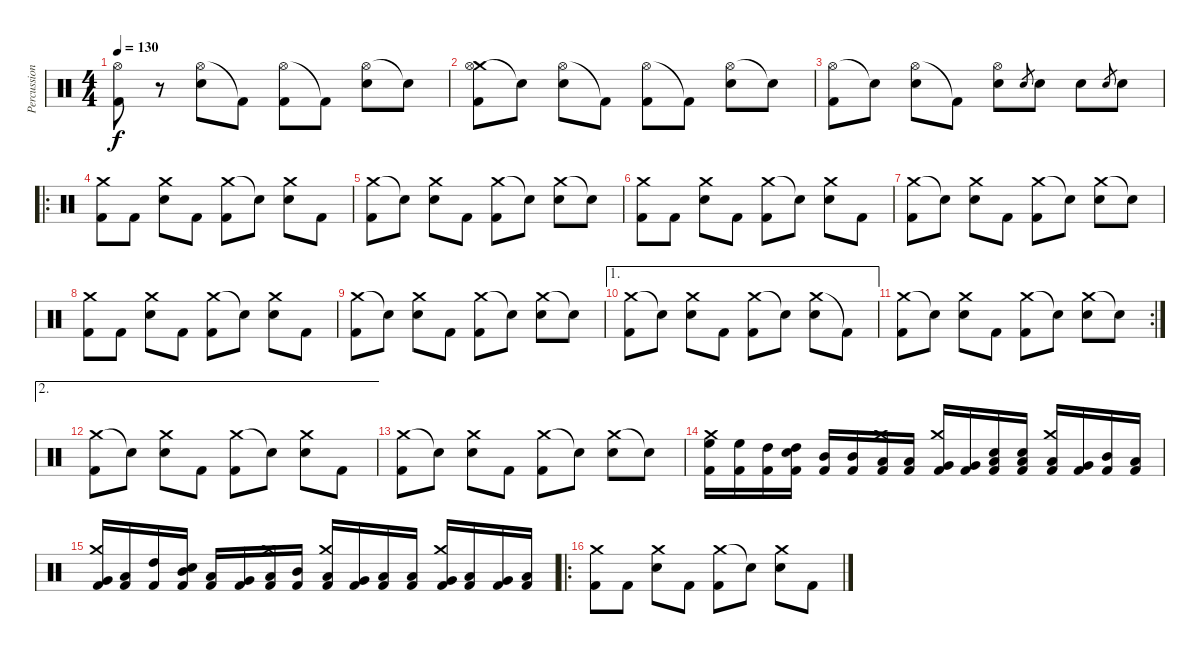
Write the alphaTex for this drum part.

\track ("Percussion" "Percussion") {instrument percussion}
\staff {score}
\articulation defaults
\ts (4 4)
\tempo 130
\clef neutral
\ks c
("Hi-Hat (open)" "Kick (hit) 2").8{dy f} r.8 ("Hi-Hat (open)" "Electric Snare (hit)").8 "Kick (hit) 2"{t}.8 ("Hi-Hat (open)" "Kick (hit) 2").8 "Kick (hit) 2"{t}.8 ("Hi-Hat (open)" "Electric Snare (hit)").8 "Snare (hit)"{t}.8 |
("Crash medium (hit)" "Hi-Hat (open)" "Kick (hit) 2").8 "Snare (hit)"{t}.8 ("Hi-Hat (open)" "Electric Snare (hit)").8 "Kick (hit) 2"{t}.8 ("Hi-Hat (open)" "Kick (hit) 2").8 "Kick (hit) 2"{t}.8 ("Hi-Hat (open)" "Electric Snare (hit)").8 "Snare (hit)"{t}.8 |
("Hi-Hat (open)" "Kick (hit) 2").8 "Snare (hit)"{t}.8 ("Hi-Hat (open)" "Electric Snare (hit)").8 "Kick (hit) 2"{t}.8 ("Hi-Hat (open)" "Electric Snare (hit)").8 "Electric Snare (hit)".8{gr} "Electric Snare (hit)".8 "Electric Snare (hit)".8 "Electric Snare (hit)".8{gr} "Electric Snare (hit)".8 |
\ro
("Crash medium (hit)" "Kick (hit) 2").8 "Kick (hit) 2".8 ("Crash medium (hit)" "Electric Snare (hit)").8 "Kick (hit) 2".8 ("Crash medium (hit)" "Kick (hit) 2").8 "Snare (hit)"{t}.8 ("Crash medium (hit)" "Electric Snare (hit)").8 "Kick (hit) 2".8 |
("Crash medium (hit)" "Kick (hit) 2").8 "Snare (hit)"{t}.8 ("Crash medium (hit)" "Electric Snare (hit)").8 "Kick (hit) 2".8 ("Crash medium (hit)" "Kick (hit) 2").8 "Snare (hit)"{t}.8 ("Crash medium (hit)" "Electric Snare (hit)").8 "Snare (hit)"{t}.8 |
("Crash medium (hit)" "Kick (hit) 2").8 "Kick (hit) 2".8 ("Crash medium (hit)" "Electric Snare (hit)").8 "Kick (hit) 2".8 ("Crash medium (hit)" "Kick (hit) 2").8 "Snare (hit)"{t}.8 ("Crash medium (hit)" "Electric Snare (hit)").8 "Kick (hit) 2".8 |
("Crash medium (hit)" "Kick (hit) 2").8 "Snare (hit)"{t}.8 ("Crash medium (hit)" "Electric Snare (hit)").8 "Kick (hit) 2".8 ("Crash medium (hit)" "Kick (hit) 2").8 "Snare (hit)"{t}.8 ("Crash medium (hit)" "Electric Snare (hit)").8 "Snare (hit)"{t}.8 |
("Crash medium (hit)" "Kick (hit) 2").8 "Kick (hit) 2".8 ("Crash medium (hit)" "Electric Snare (hit)").8 "Kick (hit) 2".8 ("Crash medium (hit)" "Kick (hit) 2").8 "Snare (hit)"{t}.8 ("Crash medium (hit)" "Electric Snare (hit)").8 "Kick (hit) 2".8 |
("Crash medium (hit)" "Kick (hit) 2").8 "Snare (hit)"{t}.8 ("Crash medium (hit)" "Electric Snare (hit)").8 "Kick (hit) 2".8 ("Crash medium (hit)" "Kick (hit) 2").8 "Snare (hit)"{t}.8 ("Crash medium (hit)" "Electric Snare (hit)").8 "Snare (hit)"{t}.8 |
\ae 1
("Crash medium (hit)" "Kick (hit) 2").8 "Snare (hit)"{t}.8 ("Crash medium (hit)" "Electric Snare (hit)").8 "Kick (hit) 2".8 ("Crash medium (hit)" "Kick (hit) 2").8 "Snare (hit)"{t}.8 ("Crash medium (hit)" "Electric Snare (hit)").8 "Kick (hit) 2"{t}.8 |
\rc 2
("Crash medium (hit)" "Kick (hit) 2").8 "Electric Snare (hit)"{t}.8 ("Crash medium (hit)" "Electric Snare (hit)").8 "Kick (hit) 2".8 ("Crash medium (hit)" "Kick (hit) 2").8 "Electric Snare (hit)"{t}.8 ("Crash medium (hit)" "Electric Snare (hit)").8 "Snare (hit)"{t}.8 |
\ae 2
("Crash medium (hit)" "Kick (hit) 2").8 "Snare (hit)"{t}.8 ("Crash medium (hit)" "Electric Snare (hit)").8 "Kick (hit) 2".8 ("Crash medium (hit)" "Kick (hit) 2").8 "Snare (hit)"{t}.8 ("Crash medium (hit)" "Electric Snare (hit)").8 "Kick (hit) 2".8 |
("Crash medium (hit)" "Kick (hit) 2").8 "Electric Snare (hit)"{t}.8 ("Crash medium (hit)" "Electric Snare (hit)").8 "Kick (hit) 2".8 ("Crash medium (hit)" "Kick (hit) 2").8 "Electric Snare (hit)"{t}.8 ("Crash medium (hit)" "Electric Snare (hit)").8 "Snare (hit)"{t}.8 |
("Crash medium (hit)" "Kick (hit) 2" "High Floor Tom (hit)").16 ("Kick (hit) 2" "High Floor Tom (hit)").16 ("Kick (hit) 2" "High Tom (hit)").16 ("Kick (hit) 2" "High Tom (hit)" "Electric Snare (hit)").16 ("Kick (hit) 2" "Mid Tom (hit)").16 ("Kick (hit) 2" "Mid Tom (hit)").16 ("Crash medium (hit)" "Kick (hit) 2" "Low Tom (hit)").16 ("Kick (hit) 2" "Low Tom (hit)").16 ("Crash medium (hit)" "Kick (hit) 2" "Very Low Tom (hit)").16 ("Kick (hit) 2" "Very Low Tom (hit)").16 ("Kick (hit) 2" "Low Floor Tom (hit)" "Snare (hit)").16 ("Kick (hit) 2" "Low Floor Tom (hit)" "Electric Snare (hit)").16 ("Crash medium (hit)" "Kick (hit) 2" "Low Tom (hit)").16 ("Kick (hit) 2" "Very Low Tom (hit)").16 ("Kick (hit) 2" "Mid Tom (hit)").16 ("Kick (hit) 2" "Low Tom (hit)").16 |
("Crash medium (hit)" "Kick (hit) 2" "Very Low Tom (hit)").16 ("Kick (hit) 2" "Low Floor Tom (hit)").16 ("Kick (hit) 2" "High Tom (hit)").16 ("Kick (hit) 2" "Mid Tom (hit)" "Electric Snare (hit)").16 ("Kick (hit) 2" "Low Tom (hit)").16 ("Kick (hit) 2" "Very Low Tom (hit)").16 ("Crash medium (hit)" "Kick (hit) 2" "Low Tom (hit)").16 ("Kick (hit) 2" "Mid Tom (hit)").16 ("Crash medium (hit)" "Kick (hit) 2" "Low Tom (hit)").16 ("Kick (hit) 2" "Very Low Tom (hit)").16 ("Kick (hit) 2" "Low Floor Tom (hit)").16 ("Kick (hit) 2" "Low Tom (hit)").16 ("Crash medium (hit)" "Kick (hit) 2" "Very Low Tom (hit)").16 ("Kick (hit) 2" "Low Floor Tom (hit)").16 ("Kick (hit) 2" "Very Low Tom (hit)").16 ("Kick (hit) 2" "Low Floor Tom (hit)").16 |
\ro
("Crash medium (hit)" "Kick (hit) 2").8 "Kick (hit) 2".8 ("Crash medium (hit)" "Electric Snare (hit)").8 "Kick (hit) 2".8 ("Crash medium (hit)" "Kick (hit) 2").8 "Snare (hit)"{t}.8 ("Crash medium (hit)" "Electric Snare (hit)").8 "Kick (hit) 2".8
